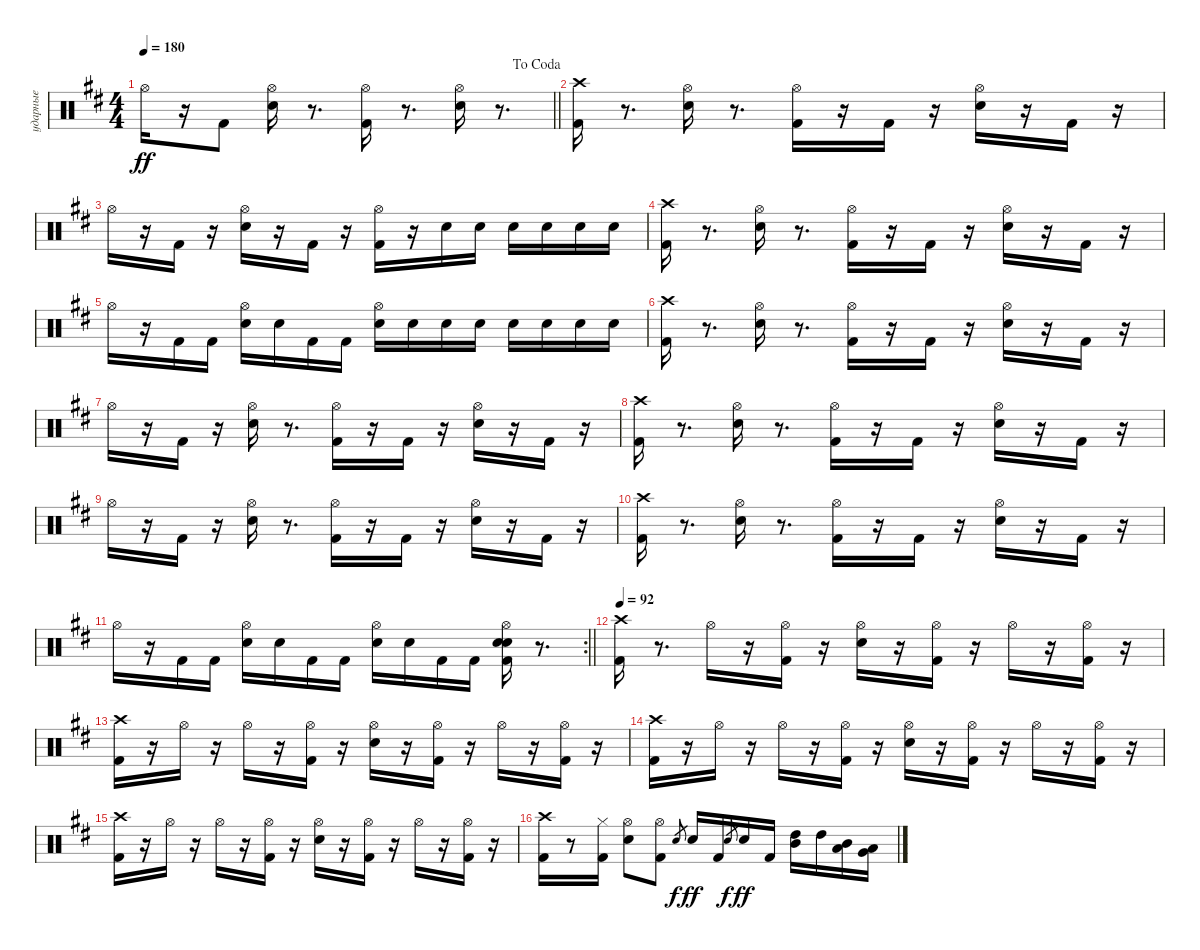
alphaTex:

\track ("ударные" "ударные") {instrument percussion}
\staff {score}
\articulation defaults
\ts (4 4)
\jump dacoda
\tempo 180
\clef neutral
\barLineRight lightlight
\ks bminor "Hi-Hat (open)".16{dy ff}
r.16 "Kick (hit) 2".8 ("Hi-Hat (open)" "Electric Snare (hit)").16 r.8{d} ("Hi-Hat (open)" "Kick (hit) 2").16 r.8{d} ("Hi-Hat (open)" "Electric Snare (hit)").16 r.8{d} |
\section ("" "")
("Crash high (hit)" "Kick (hit) 2").16 r.8{d} ("Hi-Hat (open)" "Electric Snare (hit)").16 r.8{d} ("Hi-Hat (open)" "Kick (hit) 2").16 r.16 "Kick (hit) 2".16 r.16 ("Electric Snare (hit)" "Hi-Hat (open)").16 r.16 "Kick (hit) 2".16 r.16 |
"Hi-Hat (open)".16 r.16 "Kick (hit) 2".16 r.16 ("Hi-Hat (open)" "Electric Snare (hit)").16 r.16 "Kick (hit) 2".16 r.16 ("Kick (hit) 2" "Hi-Hat (open)").16 r.16 "Electric Snare (hit)".16 "Electric Snare (hit)".16 "Electric Snare (hit)".16 "Electric Snare (hit)".16 "Electric Snare (hit)".16 "Electric Snare (hit)".16 |
("Crash high (hit)" "Kick (hit) 2").16 r.8{d} ("Hi-Hat (open)" "Electric Snare (hit)").16 r.8{d} ("Hi-Hat (open)" "Kick (hit) 2").16 r.16 "Kick (hit) 2".16 r.16 ("Electric Snare (hit)" "Hi-Hat (open)").16 r.16 "Kick (hit) 2".16 r.16 |
"Hi-Hat (open)".16 r.16 "Kick (hit) 2".16 "Kick (hit) 2".16 ("Hi-Hat (open)" "Electric Snare (hit)").16 "Electric Snare (hit)".16 "Kick (hit) 2".16 "Kick (hit) 2".16 ("Hi-Hat (open)" "Electric Snare (hit)").16 "Electric Snare (hit)".16 "Electric Snare (hit)".16 "Electric Snare (hit)".16 "Electric Snare (hit)".16 "Electric Snare (hit)".16 "Electric Snare (hit)".16 "Electric Snare (hit)".16 |
("Crash high (hit)" "Kick (hit) 2").16 r.8{d} ("Hi-Hat (open)" "Electric Snare (hit)").16 r.8{d} ("Hi-Hat (open)" "Kick (hit) 2").16 r.16 "Kick (hit) 2".16 r.16 ("Electric Snare (hit)" "Hi-Hat (open)").16 r.16 "Kick (hit) 2".16 r.16 |
"Hi-Hat (open)".16 r.16 "Kick (hit) 2".16 r.16 ("Hi-Hat (open)" "Electric Snare (hit)").16 r.8{d} ("Kick (hit) 2" "Hi-Hat (open)").16 r.16 "Kick (hit) 2".16 r.16 ("Hi-Hat (open)" "Electric Snare (hit)").16 r.16 "Kick (hit) 2".16 r.16 |
("Crash high (hit)" "Kick (hit) 2").16 r.8{d} ("Hi-Hat (open)" "Electric Snare (hit)").16 r.8{d} ("Hi-Hat (open)" "Kick (hit) 2").16 r.16 "Kick (hit) 2".16 r.16 ("Electric Snare (hit)" "Hi-Hat (open)").16 r.16 "Kick (hit) 2".16 r.16 |
"Hi-Hat (open)".16 r.16 "Kick (hit) 2".16 r.16 ("Hi-Hat (open)" "Electric Snare (hit)").16 r.8{d} ("Kick (hit) 2" "Hi-Hat (open)").16 r.16 "Kick (hit) 2".16 r.16 ("Hi-Hat (open)" "Electric Snare (hit)").16 r.16 "Kick (hit) 2".16 r.16 |
("Crash high (hit)" "Kick (hit) 2").16 r.8{d} ("Hi-Hat (open)" "Electric Snare (hit)").16 r.8{d} ("Hi-Hat (open)" "Kick (hit) 2").16 r.16 "Kick (hit) 2".16 r.16 ("Electric Snare (hit)" "Hi-Hat (open)").16 r.16 "Kick (hit) 2".16 r.16 |
\rc 2
\barLineRight lightlight "Hi-Hat (open)".16
r.16 "Kick (hit) 2".16 "Kick (hit) 2".16 ("Hi-Hat (open)" "Electric Snare (hit)").16 "Electric Snare (hit)".16 "Kick (hit) 2".16 "Kick (hit) 2".16 ("Hi-Hat (open)" "Electric Snare (hit)").16 "Electric Snare (hit)".16 "Kick (hit) 2".16 "Kick (hit) 2".16 ("Hi-Hat (open)" "Electric Snare (hit)" "Kick (hit) 2" "Electric Snare (hit)").16 r.8{d} |
\section ("" "")
\tempo 92
("Crash high (hit)" "Kick (hit) 2").16 r.8{d} "Hi-Hat (open)".16 r.16 ("Kick (hit) 2" "Hi-Hat (open)").16 r.16 ("Electric Snare (hit)" "Hi-Hat (open)").16 r.16 ("Kick (hit) 2" "Hi-Hat (open)").16 r.16 "Hi-Hat (open)".16 r.16 ("Hi-Hat (open)" "Kick (hit) 2").16 r.16 |
("Crash high (hit)" "Kick (hit) 2").16 r.16 "Hi-Hat (open)".16 r.16 "Hi-Hat (open)".16 r.16 ("Kick (hit) 2" "Hi-Hat (open)").16 r.16 ("Electric Snare (hit)" "Hi-Hat (open)").16 r.16 ("Kick (hit) 2" "Hi-Hat (open)").16 r.16 "Hi-Hat (open)".16 r.16 ("Hi-Hat (open)" "Kick (hit) 2").16 r.16 |
("Crash high (hit)" "Kick (hit) 2").16 r.16 "Hi-Hat (open)".16 r.16 "Hi-Hat (open)".16 r.16 ("Kick (hit) 2" "Hi-Hat (open)").16 r.16 ("Electric Snare (hit)" "Hi-Hat (open)").16 r.16 ("Kick (hit) 2" "Hi-Hat (open)").16 r.16 "Hi-Hat (open)".16 r.16 ("Hi-Hat (open)" "Kick (hit) 2").16 r.16 |
("Crash high (hit)" "Kick (hit) 2").16 r.16 "Hi-Hat (open)".16 r.16 "Hi-Hat (open)".16 r.16 ("Kick (hit) 2" "Hi-Hat (open)").16 r.16 ("Electric Snare (hit)" "Hi-Hat (open)").16 r.16 ("Kick (hit) 2" "Hi-Hat (open)").16 r.16 "Hi-Hat (open)".16 r.16 ("Hi-Hat (open)" "Kick (hit) 2").16 r.16 |
("Crash high (hit)" "Kick (hit) 2").16 r.8 ("Hi-Hat (closed)" "Kick (hit) 2").16 ("Snare (hit) 2" "Hi-Hat (open)").8 ("Kick (hit) 2" "Hi-Hat (open)").8 "Snare (hit) 2".8{gr dy f} "Snare (hit) 2".16{dy ff} "Kick (hit) 2".16 "Snare (hit) 2".8{gr dy f} "Snare (hit) 2".16{dy ff} "Kick (hit) 2".16 ("High Tom (hit)" "Mid Tom (hit)").16 "High Tom (hit)".16 ("Low Tom (hit)" "Mid Tom (hit)").16 ("Very Low Tom (hit)" "Low Floor Tom (hit)").16
